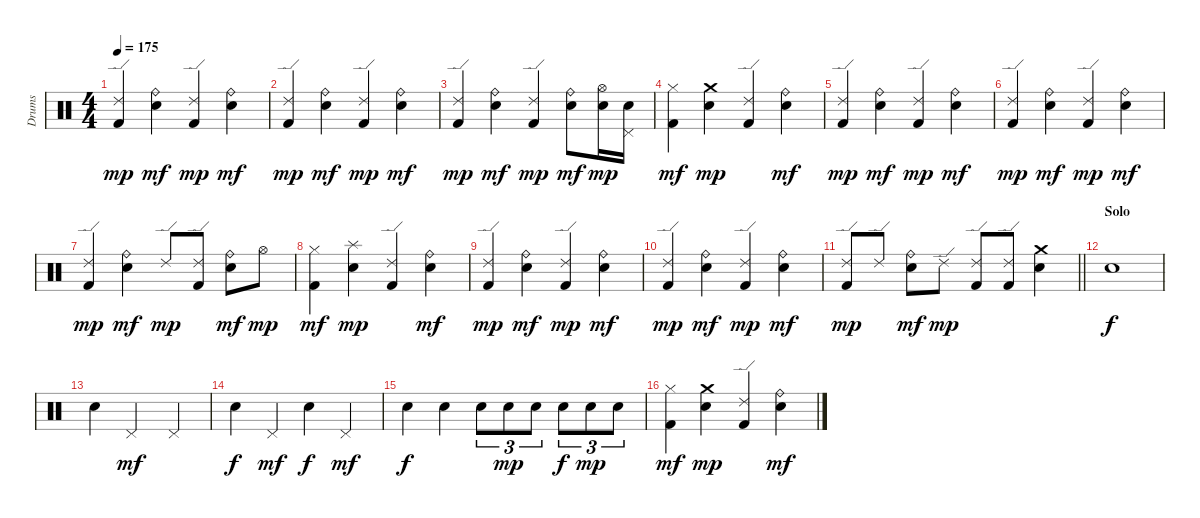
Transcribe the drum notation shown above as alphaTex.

\track ("Drums" "Drums") {instrument percussion}
\staff {score}
\articulation defaults
\ts (4 4)
\tempo 175
\clef neutral
\ks c
("Ride (edge) 2" "Kick (hit) 2").4{dy mp} ("Ride (bell)" "Electric Snare (hit)").4{dy mf} ("Ride (edge) 2" "Kick (hit) 2").4{dy mp} ("Ride (bell)" "Electric Snare (hit)").4{dy mf} |
("Ride (edge) 2" "Kick (hit) 2").4{dy mp} ("Ride (bell)" "Electric Snare (hit)").4{dy mf} ("Ride (edge) 2" "Kick (hit) 2").4{dy mp} ("Ride (bell)" "Electric Snare (hit)").4{dy mf} |
("Ride (edge) 2" "Kick (hit) 2").4{dy mp} ("Ride (bell)" "Electric Snare (hit)").4{dy mf} ("Ride (edge) 2" "Kick (hit) 2").4{dy mp} ("Ride (bell)" "Electric Snare (hit)").8{dy mf} ("Hi-Hat (open)" "Electric Snare (hit)").16{dy mp} ("Pedal Hi-Hat (hit)" "Electric Snare (hit)").16 |
("Hi-Hat (closed)" "Kick (hit) 2").4{dy mf} ("Crash medium (hit)" "Electric Snare (hit)").4{dy mp} ("Ride (edge) 2" "Kick (hit) 2").4 ("Ride (bell)" "Electric Snare (hit)").4{dy mf} |
("Ride (edge) 2" "Kick (hit) 2").4{dy mp} ("Ride (bell)" "Electric Snare (hit)").4{dy mf} ("Ride (edge) 2" "Kick (hit) 2").4{dy mp} ("Ride (bell)" "Electric Snare (hit)").4{dy mf} |
("Ride (edge) 2" "Kick (hit) 2").4{dy mp} ("Ride (bell)" "Electric Snare (hit)").4{dy mf} ("Ride (edge) 2" "Kick (hit) 2").4{dy mp} ("Ride (bell)" "Electric Snare (hit)").4{dy mf} |
("Ride (edge) 2" "Kick (hit) 2").4{dy mp} ("Ride (bell)" "Electric Snare (hit)").4{dy mf} "Ride (edge) 2".8{dy mp} ("Ride (edge) 2" "Kick (hit) 2").8 ("Ride (bell)" "Electric Snare (hit)").8{dy mf} "Hi-Hat (open)".8{dy mp} |
("Hi-Hat (closed)" "Kick (hit) 2").4{dy mf} ("Splash (hit)" "Electric Snare (hit)").4{dy mp} ("Ride (edge) 2" "Kick (hit) 2").4 ("Ride (bell)" "Electric Snare (hit)").4{dy mf} |
("Ride (edge) 2" "Kick (hit) 2").4{dy mp} ("Ride (bell)" "Electric Snare (hit)").4{dy mf} ("Ride (edge) 2" "Kick (hit) 2").4{dy mp} ("Ride (bell)" "Electric Snare (hit)").4{dy mf} |
("Ride (edge) 2" "Kick (hit) 2").4{dy mp} ("Ride (bell)" "Electric Snare (hit)").4{dy mf} ("Ride (edge) 2" "Kick (hit) 2").4{dy mp} ("Ride (bell)" "Electric Snare (hit)").4{dy mf} |
\barLineRight lightlight
("Ride (edge) 2" "Kick (hit) 2").8{dy mp} "Ride (edge) 2".8 ("Ride (bell)" "Electric Snare (hit)").8{dy mf} "Ride (edge) 2".8{dy mp} ("Ride (edge) 2" "Kick (hit) 2").8 ("Ride (edge) 2" "Kick (hit) 2").8 ("Crash medium (hit)" "Electric Snare (hit)").4 |
\section ("" "Solo")
"Electric Snare (hit)".1{dy f} |
"Electric Snare (hit)".4 "Pedal Hi-Hat (hit)".2{dy mf} "Pedal Hi-Hat (hit)".4 |
"Electric Snare (hit)".4{dy f} "Pedal Hi-Hat (hit)".4{dy mf} "Electric Snare (hit)".4{dy f} "Pedal Hi-Hat (hit)".4{dy mf} |
"Electric Snare (hit)".4{dy f} "Electric Snare (hit)".4 "Electric Snare (hit)".8{tu (3 2)} "Electric Snare (hit)".8{tu (3 2) dy mp} "Electric Snare (hit)".8{tu (3 2)} "Electric Snare (hit)".8{tu (3 2) dy f} "Electric Snare (hit)".8{tu (3 2) dy mp} "Electric Snare (hit)".8{tu (3 2)} |
("Hi-Hat (closed)" "Kick (hit) 2").4{dy mf} ("Crash medium (hit)" "Electric Snare (hit)").4{dy mp} ("Ride (edge) 2" "Kick (hit) 2").4 ("Ride (bell)" "Electric Snare (hit)").4{dy mf}
